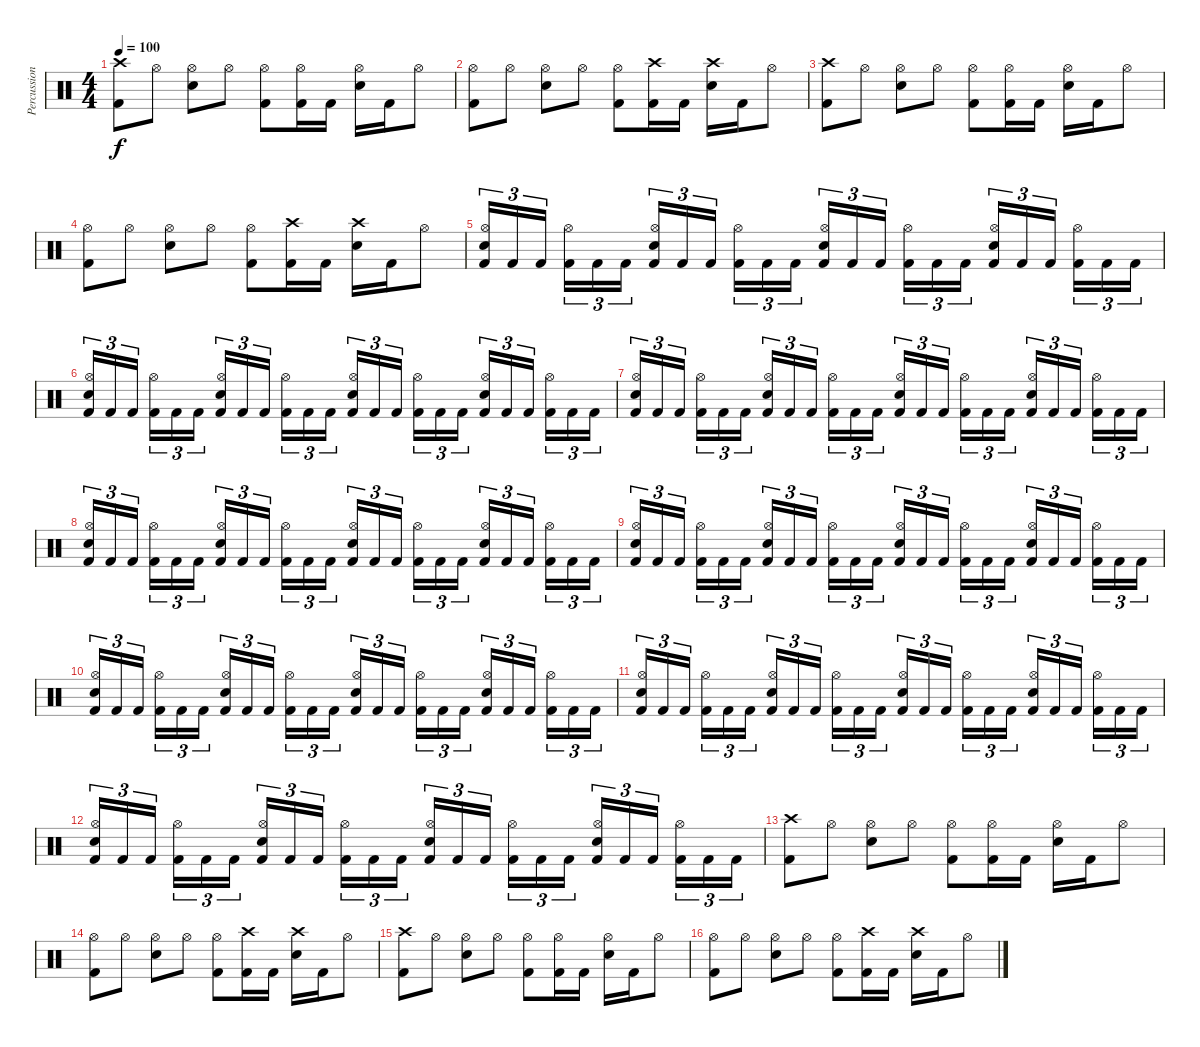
\track ("Percussion" "Percussion") {instrument percussion}
\staff {score}
\articulation defaults
\ts (4 4)
\tempo 100
\clef neutral
\ks c
("Crash high (hit)" "Kick (hit) 2").8{dy f} "Hi-Hat (open)".8 ("Hi-Hat (open)" "Electric Snare (hit)").8 "Hi-Hat (open)".8 ("Hi-Hat (open)" "Kick (hit) 2").8 ("Hi-Hat (open)" "Kick (hit) 2").16 "Kick (hit) 2".16 ("Hi-Hat (open)" "Electric Snare (hit)").16 "Kick (hit) 2".16 "Hi-Hat (open)".8 |
("Hi-Hat (open)" "Kick (hit) 2").8 "Hi-Hat (open)".8 ("Hi-Hat (open)" "Electric Snare (hit)").8 "Hi-Hat (open)".8 ("Hi-Hat (open)" "Kick (hit) 2").8 ("Crash high (hit)" "Kick (hit) 2").16 "Kick (hit) 2".16 ("Crash high (hit)" "Electric Snare (hit)").16 "Kick (hit) 2".16 "Hi-Hat (open)".8 |
("Crash high (hit)" "Kick (hit) 2").8 "Hi-Hat (open)".8 ("Hi-Hat (open)" "Electric Snare (hit)").8 "Hi-Hat (open)".8 ("Hi-Hat (open)" "Kick (hit) 2").8 ("Hi-Hat (open)" "Kick (hit) 2").16 "Kick (hit) 2".16 ("Hi-Hat (open)" "Electric Snare (hit)").16 "Kick (hit) 2".16 "Hi-Hat (open)".8 |
("Hi-Hat (open)" "Kick (hit) 2").8 "Hi-Hat (open)".8 ("Hi-Hat (open)" "Electric Snare (hit)").8 "Hi-Hat (open)".8 ("Hi-Hat (open)" "Kick (hit) 2").8 ("Crash high (hit)" "Kick (hit) 2").16 "Kick (hit) 2".16 ("Crash high (hit)" "Electric Snare (hit)").16 "Kick (hit) 2".16 "Hi-Hat (open)".8 |
("Kick (hit) 2" "Hi-Hat (open)" "Electric Snare (hit)").16{tu (3 2)} "Kick (hit) 2".16{tu (3 2)} "Kick (hit) 2".16{tu (3 2) beam splitsecondary} ("Kick (hit) 2" "Hi-Hat (open)").16{tu (3 2)} "Kick (hit) 2".16{tu (3 2)} "Kick (hit) 2".16{tu (3 2)} ("Kick (hit) 2" "Hi-Hat (open)" "Electric Snare (hit)").16{tu (3 2)} "Kick (hit) 2".16{tu (3 2)} "Kick (hit) 2".16{tu (3 2) beam splitsecondary} ("Kick (hit) 2" "Hi-Hat (open)").16{tu (3 2)} "Kick (hit) 2".16{tu (3 2)} "Kick (hit) 2".16{tu (3 2)} ("Kick (hit) 2" "Hi-Hat (open)" "Electric Snare (hit)").16{tu (3 2)} "Kick (hit) 2".16{tu (3 2)} "Kick (hit) 2".16{tu (3 2) beam splitsecondary} ("Kick (hit) 2" "Hi-Hat (open)").16{tu (3 2)} "Kick (hit) 2".16{tu (3 2)} "Kick (hit) 2".16{tu (3 2)} ("Kick (hit) 2" "Hi-Hat (open)" "Electric Snare (hit)").16{tu (3 2)} "Kick (hit) 2".16{tu (3 2)} "Kick (hit) 2".16{tu (3 2) beam splitsecondary} ("Kick (hit) 2" "Hi-Hat (open)").16{tu (3 2)} "Kick (hit) 2".16{tu (3 2)} "Kick (hit) 2".16{tu (3 2)} |
("Kick (hit) 2" "Hi-Hat (open)" "Electric Snare (hit)").16{tu (3 2)} "Kick (hit) 2".16{tu (3 2)} "Kick (hit) 2".16{tu (3 2) beam splitsecondary} ("Kick (hit) 2" "Hi-Hat (open)").16{tu (3 2)} "Kick (hit) 2".16{tu (3 2)} "Kick (hit) 2".16{tu (3 2)} ("Kick (hit) 2" "Hi-Hat (open)" "Electric Snare (hit)").16{tu (3 2)} "Kick (hit) 2".16{tu (3 2)} "Kick (hit) 2".16{tu (3 2) beam splitsecondary} ("Kick (hit) 2" "Hi-Hat (open)").16{tu (3 2)} "Kick (hit) 2".16{tu (3 2)} "Kick (hit) 2".16{tu (3 2)} ("Kick (hit) 2" "Hi-Hat (open)" "Electric Snare (hit)").16{tu (3 2)} "Kick (hit) 2".16{tu (3 2)} "Kick (hit) 2".16{tu (3 2) beam splitsecondary} ("Kick (hit) 2" "Hi-Hat (open)").16{tu (3 2)} "Kick (hit) 2".16{tu (3 2)} "Kick (hit) 2".16{tu (3 2)} ("Kick (hit) 2" "Hi-Hat (open)" "Electric Snare (hit)").16{tu (3 2)} "Kick (hit) 2".16{tu (3 2)} "Kick (hit) 2".16{tu (3 2) beam splitsecondary} ("Kick (hit) 2" "Hi-Hat (open)").16{tu (3 2)} "Kick (hit) 2".16{tu (3 2)} "Kick (hit) 2".16{tu (3 2)} |
("Kick (hit) 2" "Hi-Hat (open)" "Electric Snare (hit)").16{tu (3 2)} "Kick (hit) 2".16{tu (3 2)} "Kick (hit) 2".16{tu (3 2) beam splitsecondary} ("Kick (hit) 2" "Hi-Hat (open)").16{tu (3 2)} "Kick (hit) 2".16{tu (3 2)} "Kick (hit) 2".16{tu (3 2)} ("Kick (hit) 2" "Hi-Hat (open)" "Electric Snare (hit)").16{tu (3 2)} "Kick (hit) 2".16{tu (3 2)} "Kick (hit) 2".16{tu (3 2) beam splitsecondary} ("Kick (hit) 2" "Hi-Hat (open)").16{tu (3 2)} "Kick (hit) 2".16{tu (3 2)} "Kick (hit) 2".16{tu (3 2)} ("Kick (hit) 2" "Hi-Hat (open)" "Electric Snare (hit)").16{tu (3 2)} "Kick (hit) 2".16{tu (3 2)} "Kick (hit) 2".16{tu (3 2) beam splitsecondary} ("Kick (hit) 2" "Hi-Hat (open)").16{tu (3 2)} "Kick (hit) 2".16{tu (3 2)} "Kick (hit) 2".16{tu (3 2)} ("Kick (hit) 2" "Hi-Hat (open)" "Electric Snare (hit)").16{tu (3 2)} "Kick (hit) 2".16{tu (3 2)} "Kick (hit) 2".16{tu (3 2) beam splitsecondary} ("Kick (hit) 2" "Hi-Hat (open)").16{tu (3 2)} "Kick (hit) 2".16{tu (3 2)} "Kick (hit) 2".16{tu (3 2)} |
("Kick (hit) 2" "Hi-Hat (open)" "Electric Snare (hit)").16{tu (3 2)} "Kick (hit) 2".16{tu (3 2)} "Kick (hit) 2".16{tu (3 2) beam splitsecondary} ("Kick (hit) 2" "Hi-Hat (open)").16{tu (3 2)} "Kick (hit) 2".16{tu (3 2)} "Kick (hit) 2".16{tu (3 2)} ("Kick (hit) 2" "Hi-Hat (open)" "Electric Snare (hit)").16{tu (3 2)} "Kick (hit) 2".16{tu (3 2)} "Kick (hit) 2".16{tu (3 2) beam splitsecondary} ("Kick (hit) 2" "Hi-Hat (open)").16{tu (3 2)} "Kick (hit) 2".16{tu (3 2)} "Kick (hit) 2".16{tu (3 2)} ("Kick (hit) 2" "Hi-Hat (open)" "Electric Snare (hit)").16{tu (3 2)} "Kick (hit) 2".16{tu (3 2)} "Kick (hit) 2".16{tu (3 2) beam splitsecondary} ("Kick (hit) 2" "Hi-Hat (open)").16{tu (3 2)} "Kick (hit) 2".16{tu (3 2)} "Kick (hit) 2".16{tu (3 2)} ("Kick (hit) 2" "Hi-Hat (open)" "Electric Snare (hit)").16{tu (3 2)} "Kick (hit) 2".16{tu (3 2)} "Kick (hit) 2".16{tu (3 2) beam splitsecondary} ("Kick (hit) 2" "Hi-Hat (open)").16{tu (3 2)} "Kick (hit) 2".16{tu (3 2)} "Kick (hit) 2".16{tu (3 2)} |
("Kick (hit) 2" "Hi-Hat (open)" "Electric Snare (hit)").16{tu (3 2)} "Kick (hit) 2".16{tu (3 2)} "Kick (hit) 2".16{tu (3 2) beam splitsecondary} ("Kick (hit) 2" "Hi-Hat (open)").16{tu (3 2)} "Kick (hit) 2".16{tu (3 2)} "Kick (hit) 2".16{tu (3 2)} ("Kick (hit) 2" "Hi-Hat (open)" "Electric Snare (hit)").16{tu (3 2)} "Kick (hit) 2".16{tu (3 2)} "Kick (hit) 2".16{tu (3 2) beam splitsecondary} ("Kick (hit) 2" "Hi-Hat (open)").16{tu (3 2)} "Kick (hit) 2".16{tu (3 2)} "Kick (hit) 2".16{tu (3 2)} ("Kick (hit) 2" "Hi-Hat (open)" "Electric Snare (hit)").16{tu (3 2)} "Kick (hit) 2".16{tu (3 2)} "Kick (hit) 2".16{tu (3 2) beam splitsecondary} ("Kick (hit) 2" "Hi-Hat (open)").16{tu (3 2)} "Kick (hit) 2".16{tu (3 2)} "Kick (hit) 2".16{tu (3 2)} ("Kick (hit) 2" "Hi-Hat (open)" "Electric Snare (hit)").16{tu (3 2)} "Kick (hit) 2".16{tu (3 2)} "Kick (hit) 2".16{tu (3 2) beam splitsecondary} ("Kick (hit) 2" "Hi-Hat (open)").16{tu (3 2)} "Kick (hit) 2".16{tu (3 2)} "Kick (hit) 2".16{tu (3 2)} |
("Kick (hit) 2" "Hi-Hat (open)" "Electric Snare (hit)").16{tu (3 2)} "Kick (hit) 2".16{tu (3 2)} "Kick (hit) 2".16{tu (3 2) beam splitsecondary} ("Kick (hit) 2" "Hi-Hat (open)").16{tu (3 2)} "Kick (hit) 2".16{tu (3 2)} "Kick (hit) 2".16{tu (3 2)} ("Kick (hit) 2" "Hi-Hat (open)" "Electric Snare (hit)").16{tu (3 2)} "Kick (hit) 2".16{tu (3 2)} "Kick (hit) 2".16{tu (3 2) beam splitsecondary} ("Kick (hit) 2" "Hi-Hat (open)").16{tu (3 2)} "Kick (hit) 2".16{tu (3 2)} "Kick (hit) 2".16{tu (3 2)} ("Kick (hit) 2" "Hi-Hat (open)" "Electric Snare (hit)").16{tu (3 2)} "Kick (hit) 2".16{tu (3 2)} "Kick (hit) 2".16{tu (3 2) beam splitsecondary} ("Kick (hit) 2" "Hi-Hat (open)").16{tu (3 2)} "Kick (hit) 2".16{tu (3 2)} "Kick (hit) 2".16{tu (3 2)} ("Kick (hit) 2" "Hi-Hat (open)" "Electric Snare (hit)").16{tu (3 2)} "Kick (hit) 2".16{tu (3 2)} "Kick (hit) 2".16{tu (3 2) beam splitsecondary} ("Kick (hit) 2" "Hi-Hat (open)").16{tu (3 2)} "Kick (hit) 2".16{tu (3 2)} "Kick (hit) 2".16{tu (3 2)} |
("Kick (hit) 2" "Hi-Hat (open)" "Electric Snare (hit)").16{tu (3 2)} "Kick (hit) 2".16{tu (3 2)} "Kick (hit) 2".16{tu (3 2) beam splitsecondary} ("Kick (hit) 2" "Hi-Hat (open)").16{tu (3 2)} "Kick (hit) 2".16{tu (3 2)} "Kick (hit) 2".16{tu (3 2)} ("Kick (hit) 2" "Hi-Hat (open)" "Electric Snare (hit)").16{tu (3 2)} "Kick (hit) 2".16{tu (3 2)} "Kick (hit) 2".16{tu (3 2) beam splitsecondary} ("Kick (hit) 2" "Hi-Hat (open)").16{tu (3 2)} "Kick (hit) 2".16{tu (3 2)} "Kick (hit) 2".16{tu (3 2)} ("Kick (hit) 2" "Hi-Hat (open)" "Electric Snare (hit)").16{tu (3 2)} "Kick (hit) 2".16{tu (3 2)} "Kick (hit) 2".16{tu (3 2) beam splitsecondary} ("Kick (hit) 2" "Hi-Hat (open)").16{tu (3 2)} "Kick (hit) 2".16{tu (3 2)} "Kick (hit) 2".16{tu (3 2)} ("Kick (hit) 2" "Hi-Hat (open)" "Electric Snare (hit)").16{tu (3 2)} "Kick (hit) 2".16{tu (3 2)} "Kick (hit) 2".16{tu (3 2) beam splitsecondary} ("Kick (hit) 2" "Hi-Hat (open)").16{tu (3 2)} "Kick (hit) 2".16{tu (3 2)} "Kick (hit) 2".16{tu (3 2)} |
("Kick (hit) 2" "Hi-Hat (open)" "Electric Snare (hit)").16{tu (3 2)} "Kick (hit) 2".16{tu (3 2)} "Kick (hit) 2".16{tu (3 2) beam splitsecondary} ("Kick (hit) 2" "Hi-Hat (open)").16{tu (3 2)} "Kick (hit) 2".16{tu (3 2)} "Kick (hit) 2".16{tu (3 2)} ("Kick (hit) 2" "Hi-Hat (open)" "Electric Snare (hit)").16{tu (3 2)} "Kick (hit) 2".16{tu (3 2)} "Kick (hit) 2".16{tu (3 2) beam splitsecondary} ("Kick (hit) 2" "Hi-Hat (open)").16{tu (3 2)} "Kick (hit) 2".16{tu (3 2)} "Kick (hit) 2".16{tu (3 2)} ("Kick (hit) 2" "Hi-Hat (open)" "Electric Snare (hit)").16{tu (3 2)} "Kick (hit) 2".16{tu (3 2)} "Kick (hit) 2".16{tu (3 2) beam splitsecondary} ("Kick (hit) 2" "Hi-Hat (open)").16{tu (3 2)} "Kick (hit) 2".16{tu (3 2)} "Kick (hit) 2".16{tu (3 2)} ("Kick (hit) 2" "Hi-Hat (open)" "Electric Snare (hit)").16{tu (3 2)} "Kick (hit) 2".16{tu (3 2)} "Kick (hit) 2".16{tu (3 2) beam splitsecondary} ("Kick (hit) 2" "Hi-Hat (open)").16{tu (3 2)} "Kick (hit) 2".16{tu (3 2)} "Kick (hit) 2".16{tu (3 2)} |
("Crash high (hit)" "Kick (hit) 2").8 "Hi-Hat (open)".8 ("Hi-Hat (open)" "Electric Snare (hit)").8 "Hi-Hat (open)".8 ("Hi-Hat (open)" "Kick (hit) 2").8 ("Hi-Hat (open)" "Kick (hit) 2").16 "Kick (hit) 2".16 ("Hi-Hat (open)" "Electric Snare (hit)").16 "Kick (hit) 2".16 "Hi-Hat (open)".8 |
("Hi-Hat (open)" "Kick (hit) 2").8 "Hi-Hat (open)".8 ("Hi-Hat (open)" "Electric Snare (hit)").8 "Hi-Hat (open)".8 ("Hi-Hat (open)" "Kick (hit) 2").8 ("Crash high (hit)" "Kick (hit) 2").16 "Kick (hit) 2".16 ("Crash high (hit)" "Electric Snare (hit)").16 "Kick (hit) 2".16 "Hi-Hat (open)".8 |
("Crash high (hit)" "Kick (hit) 2").8 "Hi-Hat (open)".8 ("Hi-Hat (open)" "Electric Snare (hit)").8 "Hi-Hat (open)".8 ("Hi-Hat (open)" "Kick (hit) 2").8 ("Hi-Hat (open)" "Kick (hit) 2").16 "Kick (hit) 2".16 ("Hi-Hat (open)" "Electric Snare (hit)").16 "Kick (hit) 2".16 "Hi-Hat (open)".8 |
("Hi-Hat (open)" "Kick (hit) 2").8 "Hi-Hat (open)".8 ("Hi-Hat (open)" "Electric Snare (hit)").8 "Hi-Hat (open)".8 ("Hi-Hat (open)" "Kick (hit) 2").8 ("Crash high (hit)" "Kick (hit) 2").16 "Kick (hit) 2".16 ("Crash high (hit)" "Electric Snare (hit)").16 "Kick (hit) 2".16 "Hi-Hat (open)".8
